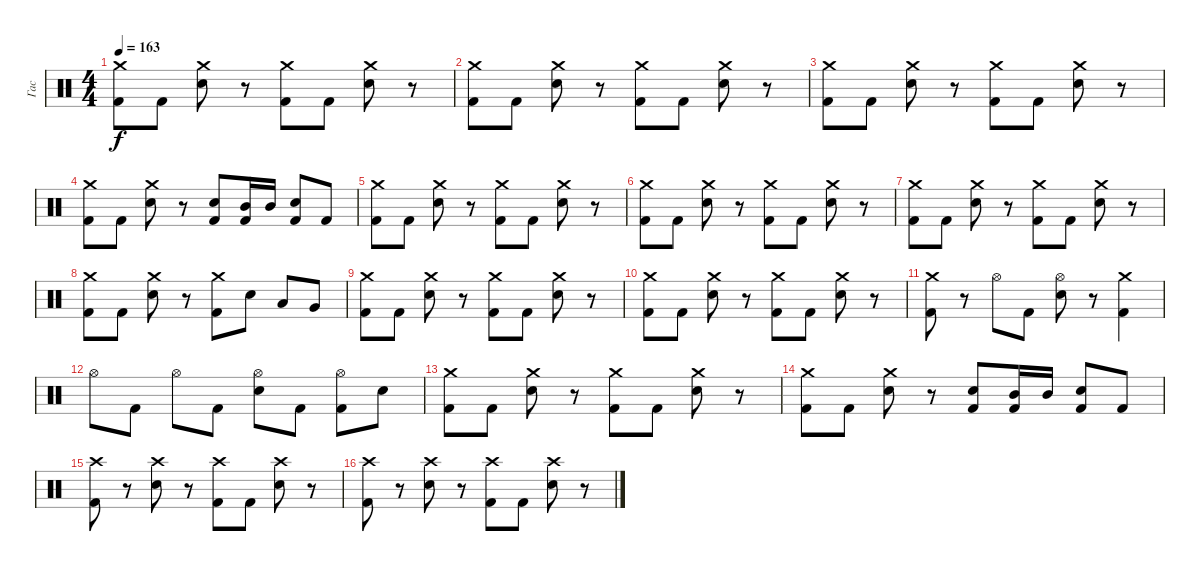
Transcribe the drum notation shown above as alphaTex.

\track ("Гас" "Гас") {instrument percussion}
\staff {score}
\articulation defaults
\ts (4 4)
\tempo 163
\clef neutral
\ks c
("Crash medium (hit)" "Kick (hit) 2").8{dy f} "Kick (hit) 2".8 ("Crash medium (hit)" "Electric Snare (hit)").8 r.8 ("Crash medium (hit)" "Kick (hit) 2").8 "Kick (hit) 2".8 ("Crash medium (hit)" "Electric Snare (hit)").8 r.8 |
("Crash medium (hit)" "Kick (hit) 2").8 "Kick (hit) 2".8 ("Crash medium (hit)" "Electric Snare (hit)").8 r.8 ("Crash medium (hit)" "Kick (hit) 2").8 "Kick (hit) 2".8 ("Crash medium (hit)" "Electric Snare (hit)").8 r.8 |
("Crash medium (hit)" "Kick (hit) 2").8 "Kick (hit) 2".8 ("Crash medium (hit)" "Electric Snare (hit)").8 r.8 ("Crash medium (hit)" "Kick (hit) 2").8 "Kick (hit) 2".8 ("Crash medium (hit)" "Electric Snare (hit)").8 r.8 |
("Crash medium (hit)" "Kick (hit) 2").8 "Kick (hit) 2".8 ("Crash medium (hit)" "Electric Snare (hit)").8 r.8 ("Electric Snare (hit)" "Kick (hit) 2").8 ("Mid Tom (hit)" "Kick (hit) 2").16 "Mid Tom (hit)".16 ("Electric Snare (hit)" "Kick (hit) 2").8 "Kick (hit) 2".8 |
("Crash medium (hit)" "Kick (hit) 2").8 "Kick (hit) 2".8 ("Crash medium (hit)" "Electric Snare (hit)").8 r.8 ("Crash medium (hit)" "Kick (hit) 2").8 "Kick (hit) 2".8 ("Crash medium (hit)" "Electric Snare (hit)").8 r.8 |
("Crash medium (hit)" "Kick (hit) 2").8 "Kick (hit) 2".8 ("Crash medium (hit)" "Electric Snare (hit)").8 r.8 ("Crash medium (hit)" "Kick (hit) 2").8 "Kick (hit) 2".8 ("Crash medium (hit)" "Electric Snare (hit)").8 r.8 |
("Crash medium (hit)" "Kick (hit) 2").8 "Kick (hit) 2".8 ("Crash medium (hit)" "Electric Snare (hit)").8 r.8 ("Crash medium (hit)" "Kick (hit) 2").8 "Kick (hit) 2".8 ("Crash medium (hit)" "Electric Snare (hit)").8 r.8 |
("Crash medium (hit)" "Kick (hit) 2").8 "Kick (hit) 2".8 ("Crash medium (hit)" "Electric Snare (hit)").8 r.8 ("Crash medium (hit)" "Kick (hit) 2").8 "Electric Snare (hit)".8 "Low Tom (hit)".8 "Very Low Tom (hit)".8 |
("Crash medium (hit)" "Kick (hit) 2").8 "Kick (hit) 2".8 ("Crash medium (hit)" "Electric Snare (hit)").8 r.8 ("Crash medium (hit)" "Kick (hit) 2").8 "Kick (hit) 2".8 ("Crash medium (hit)" "Electric Snare (hit)").8 r.8 |
("Crash medium (hit)" "Kick (hit) 2").8 "Kick (hit) 2".8 ("Crash medium (hit)" "Electric Snare (hit)").8 r.8 ("Crash medium (hit)" "Kick (hit) 2").8 "Kick (hit) 2".8 ("Crash medium (hit)" "Electric Snare (hit)").8 r.8 |
("Crash medium (hit)" "Kick (hit) 2").8 r.8 "Hi-Hat (open)".8 "Kick (hit) 2".8 ("Hi-Hat (open)" "Electric Snare (hit)").8 r.8 ("Crash medium (hit)" "Kick (hit) 2").4 |
"Hi-Hat (open)".8 "Kick (hit) 2".8 "Hi-Hat (open)".8 "Kick (hit) 2".8 ("Hi-Hat (open)" "Electric Snare (hit)").8 "Kick (hit) 2".8 ("Hi-Hat (open)" "Kick (hit) 2").8 "Electric Snare (hit)".8 |
("Crash medium (hit)" "Kick (hit) 2").8 "Kick (hit) 2".8 ("Crash medium (hit)" "Electric Snare (hit)").8 r.8 ("Crash medium (hit)" "Kick (hit) 2").8 "Kick (hit) 2".8 ("Crash medium (hit)" "Electric Snare (hit)").8 r.8 |
("Crash medium (hit)" "Kick (hit) 2").8 "Kick (hit) 2".8 ("Crash medium (hit)" "Electric Snare (hit)").8 r.8 ("Electric Snare (hit)" "Kick (hit) 2").8 ("Mid Tom (hit)" "Kick (hit) 2").16 "Mid Tom (hit)".16 ("Electric Snare (hit)" "Kick (hit) 2").8 "Kick (hit) 2".8 |
("Crash high (hit)" "Kick (hit) 2").8 r.8 ("Crash high (hit)" "Electric Snare (hit)").8 r.8 ("Crash high (hit)" "Kick (hit) 2").8 "Kick (hit) 2".8 ("Crash high (hit)" "Electric Snare (hit)").8 r.8 |
("Crash high (hit)" "Kick (hit) 2").8 r.8 ("Crash high (hit)" "Electric Snare (hit)").8 r.8 ("Crash high (hit)" "Kick (hit) 2").8 "Kick (hit) 2".8 ("Crash high (hit)" "Electric Snare (hit)").8 r.8
